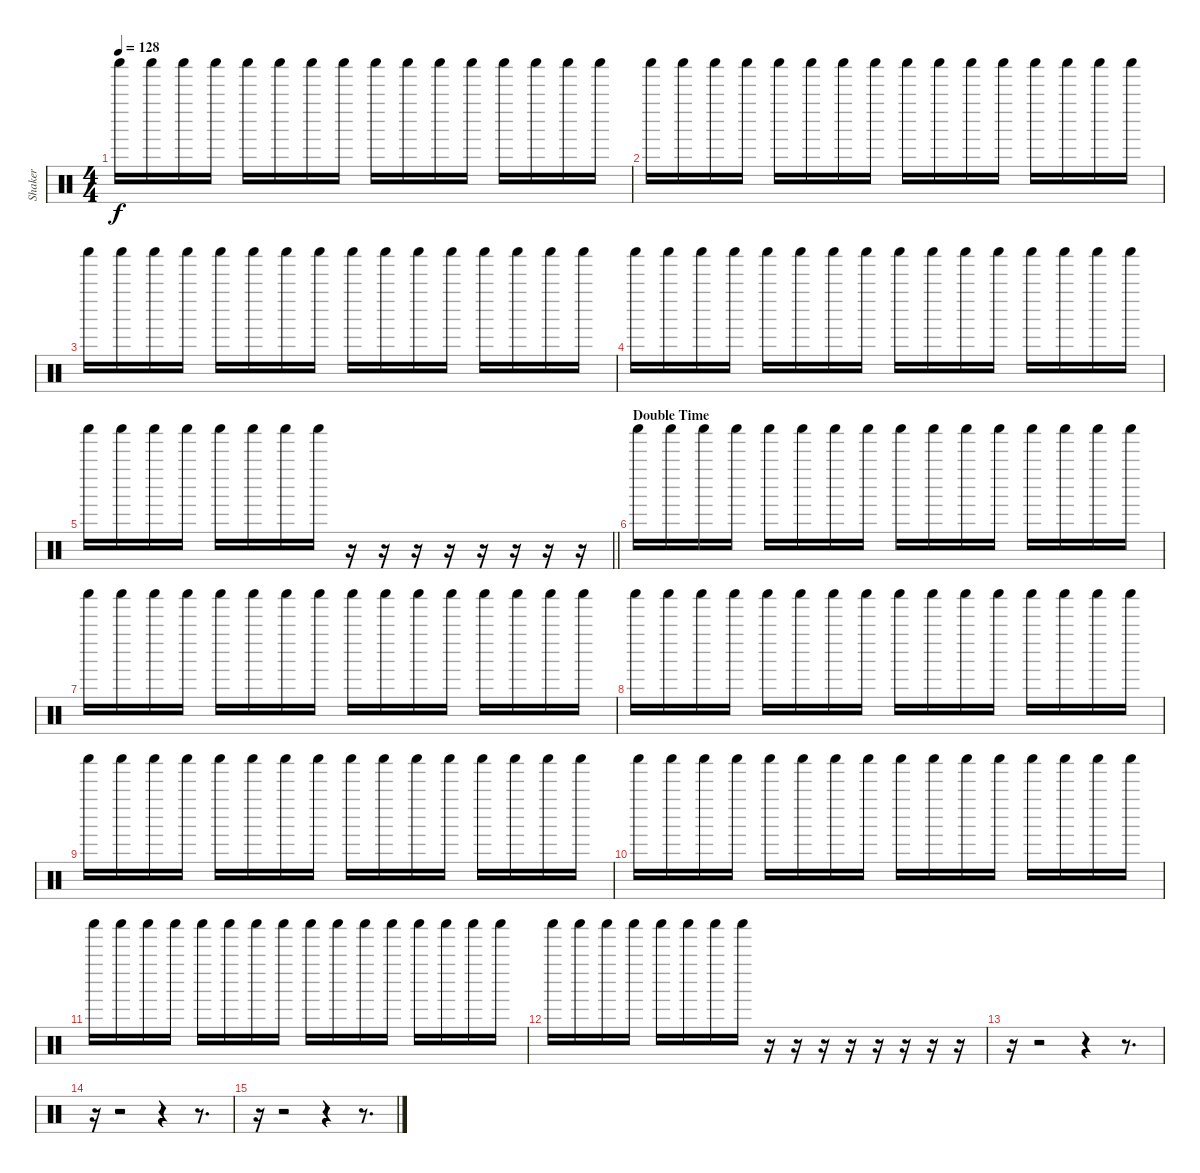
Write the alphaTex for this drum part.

\track ("Shaker" "Shaker") {instrument percussion}
\staff {score}
\articulation defaults
\ts (4 4)
\tempo 128
\clef neutral
\ks c "Shaker (hit)".16{dy f} "Shaker (hit)".16 "Shaker (hit)".16 "Shaker (hit)".16 "Shaker (hit)".16 "Shaker (hit)".16 "Shaker (hit)".16 "Shaker (hit)".16 "Shaker (hit)".16 "Shaker (hit)".16 "Shaker (hit)".16 "Shaker (hit)".16 "Shaker (hit)".16 "Shaker (hit)".16 "Shaker (hit)".16 "Shaker (hit)".16
|
"Shaker (hit)".16 "Shaker (hit)".16 "Shaker (hit)".16 "Shaker (hit)".16 "Shaker (hit)".16 "Shaker (hit)".16 "Shaker (hit)".16 "Shaker (hit)".16 "Shaker (hit)".16 "Shaker (hit)".16 "Shaker (hit)".16 "Shaker (hit)".16 "Shaker (hit)".16 "Shaker (hit)".16 "Shaker (hit)".16 "Shaker (hit)".16 |
"Shaker (hit)".16 "Shaker (hit)".16 "Shaker (hit)".16 "Shaker (hit)".16 "Shaker (hit)".16 "Shaker (hit)".16 "Shaker (hit)".16 "Shaker (hit)".16 "Shaker (hit)".16 "Shaker (hit)".16 "Shaker (hit)".16 "Shaker (hit)".16 "Shaker (hit)".16 "Shaker (hit)".16 "Shaker (hit)".16 "Shaker (hit)".16 |
"Shaker (hit)".16 "Shaker (hit)".16 "Shaker (hit)".16 "Shaker (hit)".16 "Shaker (hit)".16 "Shaker (hit)".16 "Shaker (hit)".16 "Shaker (hit)".16 "Shaker (hit)".16 "Shaker (hit)".16 "Shaker (hit)".16 "Shaker (hit)".16 "Shaker (hit)".16 "Shaker (hit)".16 "Shaker (hit)".16 "Shaker (hit)".16 |
\barLineRight lightlight "Shaker (hit)".16 "Shaker (hit)".16 "Shaker (hit)".16 "Shaker (hit)".16 "Shaker (hit)".16 "Shaker (hit)".16 "Shaker (hit)".16 "Shaker (hit)".16
r.16 r.16 r.16 r.16 r.16 r.16 r.16 r.16 |
\section ("" "Double Time")
"Shaker (hit)".16 "Shaker (hit)".16 "Shaker (hit)".16 "Shaker (hit)".16 "Shaker (hit)".16 "Shaker (hit)".16 "Shaker (hit)".16 "Shaker (hit)".16 "Shaker (hit)".16 "Shaker (hit)".16 "Shaker (hit)".16 "Shaker (hit)".16 "Shaker (hit)".16 "Shaker (hit)".16 "Shaker (hit)".16 "Shaker (hit)".16 |
"Shaker (hit)".16 "Shaker (hit)".16 "Shaker (hit)".16 "Shaker (hit)".16 "Shaker (hit)".16 "Shaker (hit)".16 "Shaker (hit)".16 "Shaker (hit)".16 "Shaker (hit)".16 "Shaker (hit)".16 "Shaker (hit)".16 "Shaker (hit)".16 "Shaker (hit)".16 "Shaker (hit)".16 "Shaker (hit)".16 "Shaker (hit)".16 |
"Shaker (hit)".16 "Shaker (hit)".16 "Shaker (hit)".16 "Shaker (hit)".16 "Shaker (hit)".16 "Shaker (hit)".16 "Shaker (hit)".16 "Shaker (hit)".16 "Shaker (hit)".16 "Shaker (hit)".16 "Shaker (hit)".16 "Shaker (hit)".16 "Shaker (hit)".16 "Shaker (hit)".16 "Shaker (hit)".16 "Shaker (hit)".16 |
"Shaker (hit)".16 "Shaker (hit)".16 "Shaker (hit)".16 "Shaker (hit)".16 "Shaker (hit)".16 "Shaker (hit)".16 "Shaker (hit)".16 "Shaker (hit)".16 "Shaker (hit)".16 "Shaker (hit)".16 "Shaker (hit)".16 "Shaker (hit)".16 "Shaker (hit)".16 "Shaker (hit)".16 "Shaker (hit)".16 "Shaker (hit)".16 |
"Shaker (hit)".16 "Shaker (hit)".16 "Shaker (hit)".16 "Shaker (hit)".16 "Shaker (hit)".16 "Shaker (hit)".16 "Shaker (hit)".16 "Shaker (hit)".16 "Shaker (hit)".16 "Shaker (hit)".16 "Shaker (hit)".16 "Shaker (hit)".16 "Shaker (hit)".16 "Shaker (hit)".16 "Shaker (hit)".16 "Shaker (hit)".16 |
"Shaker (hit)".16 "Shaker (hit)".16 "Shaker (hit)".16 "Shaker (hit)".16 "Shaker (hit)".16 "Shaker (hit)".16 "Shaker (hit)".16 "Shaker (hit)".16 "Shaker (hit)".16 "Shaker (hit)".16 "Shaker (hit)".16 "Shaker (hit)".16 "Shaker (hit)".16 "Shaker (hit)".16 "Shaker (hit)".16 "Shaker (hit)".16 |
"Shaker (hit)".16 "Shaker (hit)".16 "Shaker (hit)".16 "Shaker (hit)".16 "Shaker (hit)".16 "Shaker (hit)".16 "Shaker (hit)".16 "Shaker (hit)".16 r.16 r.16 r.16 r.16 r.16 r.16 r.16 r.16 |
r.16 r.2 r.4 r.8{d} |
r.16 r.2 r.4 r.8{d} |
r.16 r.2 r.4 r.8{d}
